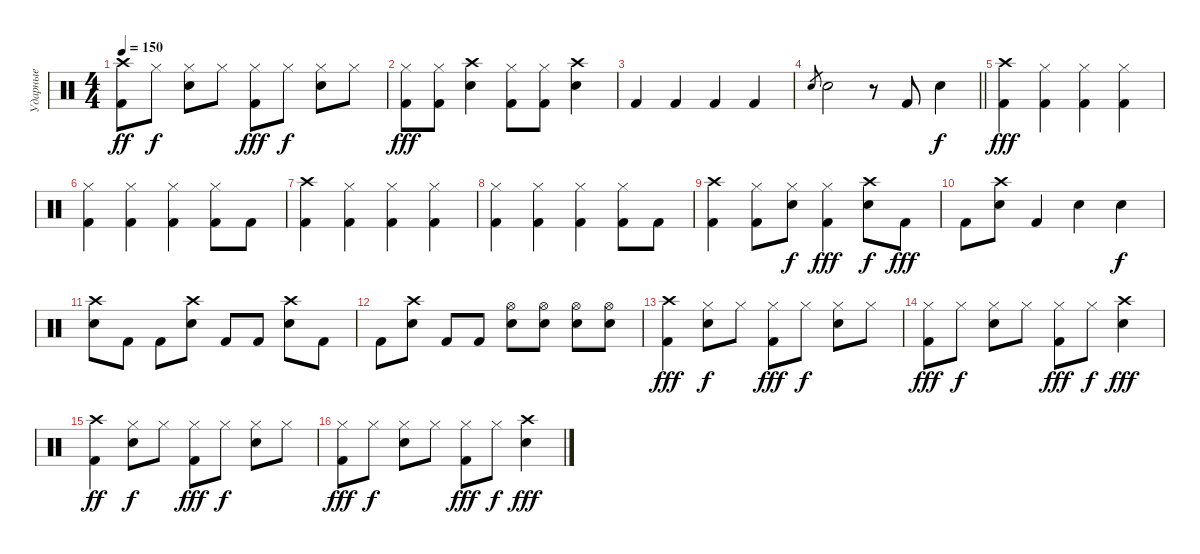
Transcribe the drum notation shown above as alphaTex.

\track ("Ударные" "Ударные") {instrument percussion}
\staff {score}
\articulation defaults
\ts (4 4)
\tempo 150
\clef neutral
\ks c
("Kick (hit) 2" "Crash high (hit)").8{dy ff} "Hi-Hat (closed)".8{dy f} ("Snare (hit) 2" "Hi-Hat (closed)").8 "Hi-Hat (closed)".8 ("Kick (hit) 2" "Hi-Hat (closed)").8{dy fff} "Hi-Hat (closed)".8{dy f} ("Snare (hit) 2" "Hi-Hat (closed)").8 "Hi-Hat (closed)".8 |
("Kick (hit) 2" "Hi-Hat (closed)").8{dy fff} ("Kick (hit) 2" "Hi-Hat (closed)").8 ("Snare (hit) 2" "Crash high (hit)").4 ("Kick (hit) 2" "Hi-Hat (closed)").8 ("Kick (hit) 2" "Hi-Hat (closed)").8 ("Snare (hit) 2" "Crash high (hit)").4 |
"Kick (hit) 2".4 "Kick (hit) 2".4 "Kick (hit) 2".4 "Kick (hit) 2".4 |
\barLineRight lightlight "Snare (hit) 2".8{gr} "Snare (hit) 2".2
r.8 "Kick (hit) 2".8 "Snare (hit) 2".4{dy f} |
("Kick (hit) 2" "Crash high (hit)").4{dy fff} ("Kick (hit) 2" "Hi-Hat (closed)").4 ("Kick (hit) 2" "Hi-Hat (closed)").4 ("Kick (hit) 2" "Hi-Hat (closed)").4 |
("Kick (hit) 2" "Hi-Hat (closed)").4 ("Kick (hit) 2" "Hi-Hat (closed)").4 ("Kick (hit) 2" "Hi-Hat (closed)").4 ("Kick (hit) 2" "Hi-Hat (closed)").8 "Kick (hit) 2".8 |
("Kick (hit) 2" "Crash high (hit)").4 ("Kick (hit) 2" "Hi-Hat (closed)").4 ("Kick (hit) 2" "Hi-Hat (closed)").4 ("Kick (hit) 2" "Hi-Hat (closed)").4 |
("Kick (hit) 2" "Hi-Hat (closed)").4 ("Kick (hit) 2" "Hi-Hat (closed)").4 ("Kick (hit) 2" "Hi-Hat (closed)").4 ("Kick (hit) 2" "Hi-Hat (closed)").8 "Kick (hit) 2".8 |
("Kick (hit) 2" "Crash high (hit)").4 ("Kick (hit) 2" "Hi-Hat (closed)").8 ("Snare (hit) 2" "Hi-Hat (closed)").8{dy f} ("Kick (hit) 2" "Hi-Hat (closed)").4{dy fff} ("Snare (hit) 2" "Crash high (hit)").8{dy f} "Kick (hit) 2".8{dy fff} |
"Kick (hit) 2".8 ("Snare (hit) 2" "Crash high (hit)").8 "Kick (hit) 2".4 "Snare (hit) 2".4 "Snare (hit) 2".4{dy f} |
("Snare (hit) 2" "Crash high (hit)").8 "Kick (hit) 2".8 "Kick (hit) 2".8 ("Snare (hit) 2" "Crash high (hit)").8 "Kick (hit) 2".8 "Kick (hit) 2".8 ("Snare (hit) 2" "Crash high (hit)").8 "Kick (hit) 2".8 |
"Kick (hit) 2".8 ("Snare (hit) 2" "Crash high (hit)").8 "Kick (hit) 2".8 "Kick (hit) 2".8 ("Snare (hit) 2" "Hi-Hat (open)").8 ("Snare (hit) 2" "Hi-Hat (open)").8 ("Snare (hit) 2" "Hi-Hat (open)").8 ("Snare (hit) 2" "Hi-Hat (open)").8 |
("Kick (hit) 2" "Crash high (hit)").4{dy fff} ("Snare (hit) 2" "Hi-Hat (closed)").8{dy f} "Hi-Hat (closed)".8 ("Kick (hit) 2" "Hi-Hat (closed)").8{dy fff} "Hi-Hat (closed)".8{dy f} ("Snare (hit) 2" "Hi-Hat (closed)").8 "Hi-Hat (closed)".8 |
("Kick (hit) 2" "Hi-Hat (closed)").8{dy fff} "Hi-Hat (closed)".8{dy f} ("Snare (hit) 2" "Hi-Hat (closed)").8 "Hi-Hat (closed)".8 ("Kick (hit) 2" "Hi-Hat (closed)").8{dy fff} "Hi-Hat (closed)".8{dy f} ("Snare (hit) 2" "Crash high (hit)").4{dy fff} |
("Kick (hit) 2" "Crash high (hit)").4{dy ff} ("Snare (hit) 2" "Hi-Hat (closed)").8{dy f} "Hi-Hat (closed)".8 ("Kick (hit) 2" "Hi-Hat (closed)").8{dy fff} "Hi-Hat (closed)".8{dy f} ("Snare (hit) 2" "Hi-Hat (closed)").8 "Hi-Hat (closed)".8 |
("Kick (hit) 2" "Hi-Hat (closed)").8{dy fff} "Hi-Hat (closed)".8{dy f} ("Snare (hit) 2" "Hi-Hat (closed)").8 "Hi-Hat (closed)".8 ("Kick (hit) 2" "Hi-Hat (closed)").8{dy fff} "Hi-Hat (closed)".8{dy f} ("Snare (hit) 2" "Crash high (hit)").4{dy fff}
